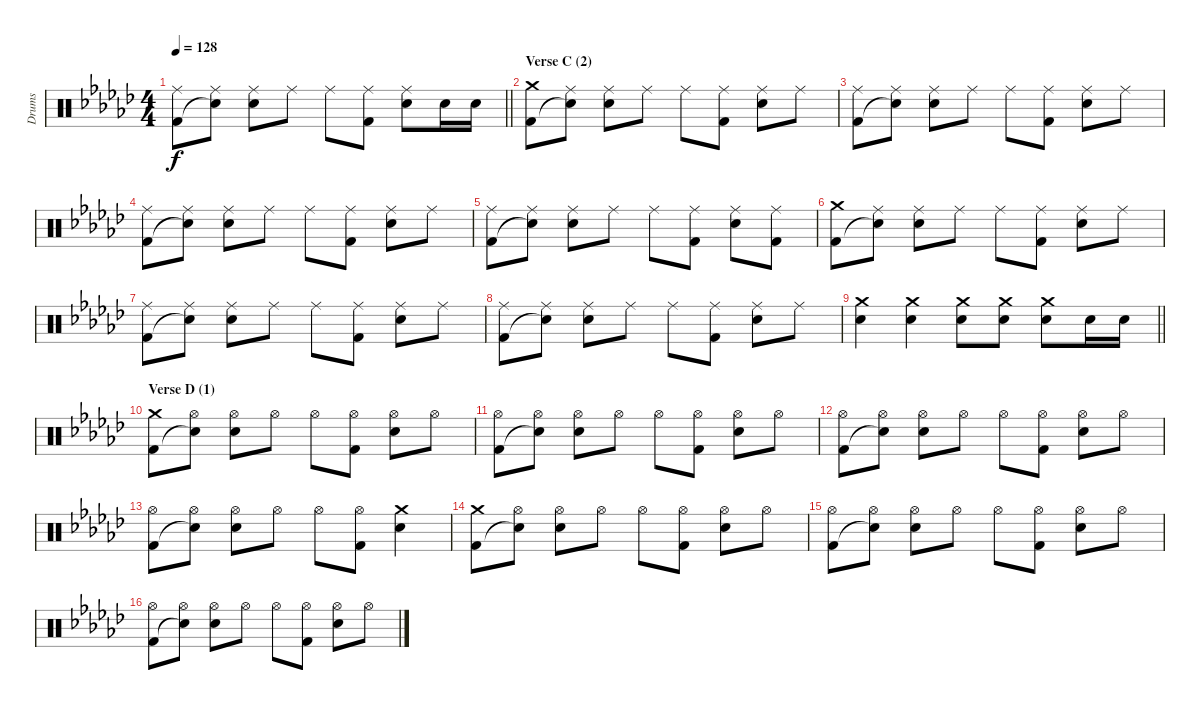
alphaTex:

\track ("Drums" "Drums") {instrument percussion}
\staff {score}
\articulation defaults
\ts (4 4)
\tempo 128
\clef neutral
\barLineRight lightlight
\ks gb
("Ride (middle)" "Kick (hit) 2").8{dy f} ("Ride (middle)" "Snare (hit)"{t}).8 ("Ride (middle)" "Electric Snare (hit)").8 "Ride (middle)".8 "Ride (middle)".8 ("Ride (middle)" "Kick (hit) 2").8 ("Ride (middle)" "Electric Snare (hit)").8 "Electric Snare (hit)".16 "Electric Snare (hit)".16 |
\section ("" "Verse C (2)")
("Crash medium (hit)" "Kick (hit) 2").8 ("Ride (middle)" "Snare (hit)"{t}).8 ("Ride (middle)" "Electric Snare (hit)").8 "Ride (middle)".8 "Ride (middle)".8 ("Ride (middle)" "Kick (hit) 2").8 ("Ride (middle)" "Electric Snare (hit)").8 "Ride (middle)".8 |
("Ride (middle)" "Kick (hit) 2").8 ("Ride (middle)" "Snare (hit)"{t}).8 ("Ride (middle)" "Electric Snare (hit)").8 "Ride (middle)".8 "Ride (middle)".8 ("Ride (middle)" "Kick (hit) 2").8 ("Ride (middle)" "Electric Snare (hit)").8 "Ride (middle)".8 |
("Ride (middle)" "Kick (hit) 2").8 ("Ride (middle)" "Snare (hit)"{t}).8 ("Ride (middle)" "Electric Snare (hit)").8 "Ride (middle)".8 "Ride (middle)".8 ("Ride (middle)" "Kick (hit) 2").8 ("Ride (middle)" "Electric Snare (hit)").8 "Ride (middle)".8 |
("Ride (middle)" "Kick (hit) 2").8 ("Ride (middle)" "Snare (hit)"{t}).8 ("Ride (middle)" "Electric Snare (hit)").8 "Ride (middle)".8 "Ride (middle)".8 ("Ride (middle)" "Kick (hit) 2").8 ("Ride (middle)" "Electric Snare (hit)").8 ("Ride (middle)" "Kick (hit) 2").8 |
("Crash medium (hit)" "Kick (hit) 2").8 ("Ride (middle)" "Snare (hit)"{t}).8 ("Ride (middle)" "Electric Snare (hit)").8 "Ride (middle)".8 "Ride (middle)".8 ("Ride (middle)" "Kick (hit) 2").8 ("Ride (middle)" "Electric Snare (hit)").8 "Ride (middle)".8 |
("Ride (middle)" "Kick (hit) 2").8 ("Ride (middle)" "Snare (hit)"{t}).8 ("Ride (middle)" "Electric Snare (hit)").8 "Ride (middle)".8 "Ride (middle)".8 ("Ride (middle)" "Kick (hit) 2").8 ("Ride (middle)" "Electric Snare (hit)").8 "Ride (middle)".8 |
("Ride (middle)" "Kick (hit) 2").8 ("Ride (middle)" "Snare (hit)"{t}).8 ("Ride (middle)" "Electric Snare (hit)").8 "Ride (middle)".8 "Ride (middle)".8 ("Ride (middle)" "Kick (hit) 2").8 ("Ride (middle)" "Electric Snare (hit)").8 "Ride (middle)".8 |
\barLineRight lightlight
("Crash medium (hit)" "Electric Snare (hit)").4 ("Crash medium (hit)" "Electric Snare (hit)").4 ("Crash medium (hit)" "Electric Snare (hit)").8 ("Crash medium (hit)" "Electric Snare (hit)").8 ("Crash medium (hit)" "Electric Snare (hit)").8 "Electric Snare (hit)".16 "Electric Snare (hit)".16 |
\section ("" "Verse D (1)")
("Crash medium (hit)" "Kick (hit) 2").8 ("Hi-Hat (open)" "Snare (hit)"{t}).8 ("Hi-Hat (open)" "Electric Snare (hit)").8 "Hi-Hat (open)".8 "Hi-Hat (open)".8 ("Hi-Hat (open)" "Kick (hit) 2").8 ("Hi-Hat (open)" "Electric Snare (hit)").8 "Hi-Hat (open)".8 |
("Hi-Hat (open)" "Kick (hit) 2").8 ("Hi-Hat (open)" "Snare (hit)"{t}).8 ("Hi-Hat (open)" "Electric Snare (hit)").8 "Hi-Hat (open)".8 "Hi-Hat (open)".8 ("Hi-Hat (open)" "Kick (hit) 2").8 ("Hi-Hat (open)" "Electric Snare (hit)").8 "Hi-Hat (open)".8 |
("Hi-Hat (open)" "Kick (hit) 2").8 ("Hi-Hat (open)" "Snare (hit)"{t}).8 ("Hi-Hat (open)" "Electric Snare (hit)").8 "Hi-Hat (open)".8 "Hi-Hat (open)".8 ("Hi-Hat (open)" "Kick (hit) 2").8 ("Hi-Hat (open)" "Electric Snare (hit)").8 "Hi-Hat (open)".8 |
("Hi-Hat (open)" "Kick (hit) 2").8 ("Hi-Hat (open)" "Snare (hit)"{t}).8 ("Hi-Hat (open)" "Electric Snare (hit)").8 "Hi-Hat (open)".8 "Hi-Hat (open)".8 ("Hi-Hat (open)" "Kick (hit) 2").8 ("Crash medium (hit)" "Electric Snare (hit)").4 |
("Crash medium (hit)" "Kick (hit) 2").8 ("Hi-Hat (open)" "Snare (hit)"{t}).8 ("Hi-Hat (open)" "Electric Snare (hit)").8 "Hi-Hat (open)".8 "Hi-Hat (open)".8 ("Hi-Hat (open)" "Kick (hit) 2").8 ("Hi-Hat (open)" "Electric Snare (hit)").8 "Hi-Hat (open)".8 |
("Hi-Hat (open)" "Kick (hit) 2").8 ("Hi-Hat (open)" "Snare (hit)"{t}).8 ("Hi-Hat (open)" "Electric Snare (hit)").8 "Hi-Hat (open)".8 "Hi-Hat (open)".8 ("Hi-Hat (open)" "Kick (hit) 2").8 ("Hi-Hat (open)" "Electric Snare (hit)").8 "Hi-Hat (open)".8 |
("Hi-Hat (open)" "Kick (hit) 2").8 ("Hi-Hat (open)" "Snare (hit)"{t}).8 ("Hi-Hat (open)" "Electric Snare (hit)").8 "Hi-Hat (open)".8 "Hi-Hat (open)".8 ("Hi-Hat (open)" "Kick (hit) 2").8 ("Hi-Hat (open)" "Electric Snare (hit)").8 "Hi-Hat (open)".8
